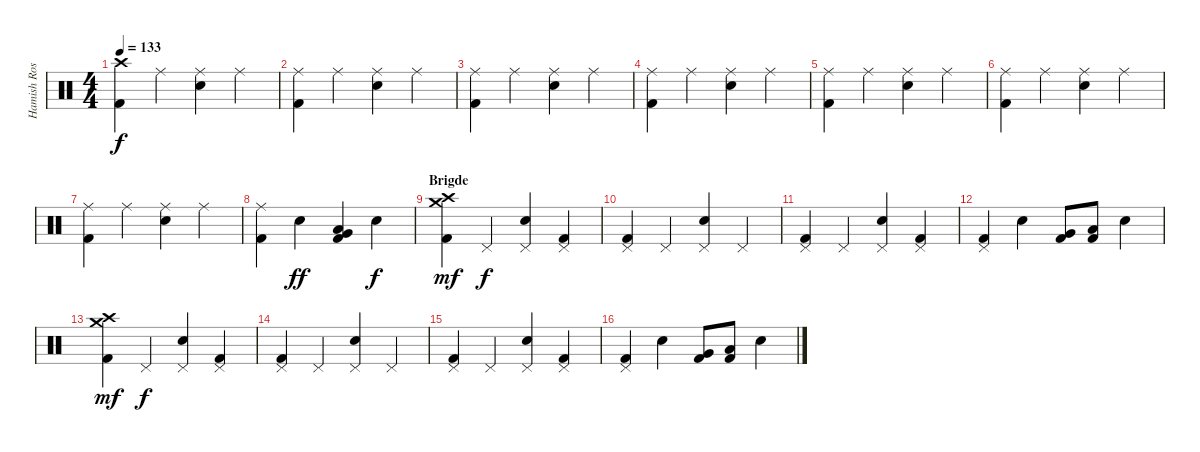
\track ("Hamish Rosser" "Hamish Ros") {instrument percussion}
\staff {score}
\articulation defaults
\ts (4 4)
\tempo 133
\clef neutral
\ks c
("Crash high (hit)" "Kick (hit) 2").4{dy f} "Ride (middle)".4 ("Ride (middle)" "Electric Snare (hit)").4 "Ride (middle)".4 |
("Ride (middle)" "Kick (hit) 2").4 "Ride (middle)".4 ("Ride (middle)" "Electric Snare (hit)").4 "Ride (middle)".4 |
("Ride (middle)" "Kick (hit) 2").4 "Ride (middle)".4 ("Ride (middle)" "Electric Snare (hit)").4 "Ride (middle)".4 |
("Ride (middle)" "Kick (hit) 2").4 "Ride (middle)".4 ("Ride (middle)" "Electric Snare (hit)").4 "Ride (middle)".4 |
("Ride (middle)" "Kick (hit) 2").4 "Ride (middle)".4 ("Ride (middle)" "Electric Snare (hit)").4 "Ride (middle)".4 |
("Ride (middle)" "Kick (hit) 2").4 "Ride (middle)".4 ("Ride (middle)" "Electric Snare (hit)").4 "Ride (middle)".4 |
("Ride (middle)" "Kick (hit) 2").4 "Ride (middle)".4 ("Ride (middle)" "Electric Snare (hit)").4 "Ride (middle)".4 |
("Ride (middle)" "Kick (hit) 2").4 "Electric Snare (hit)".4{dy ff} ("Low Tom (hit)" "Very Low Tom (hit)" "Kick (hit) 2").4 "Electric Snare (hit)".4{dy f} |
\section ("" "Brigde")
("Crash medium (hit)" "Crash high (hit)" "Kick (hit) 2").4{dy mf} "Pedal Hi-Hat (hit)".4{dy f} ("Pedal Hi-Hat (hit)" "Electric Snare (hit)").4 ("Pedal Hi-Hat (hit)" "Kick (hit) 2").4 |
("Pedal Hi-Hat (hit)" "Kick (hit) 2").4 "Pedal Hi-Hat (hit)".4 ("Pedal Hi-Hat (hit)" "Electric Snare (hit)").4 "Pedal Hi-Hat (hit)".4 |
("Pedal Hi-Hat (hit)" "Kick (hit) 2").4 "Pedal Hi-Hat (hit)".4 ("Pedal Hi-Hat (hit)" "Electric Snare (hit)").4 ("Pedal Hi-Hat (hit)" "Kick (hit) 2").4 |
("Pedal Hi-Hat (hit)" "Kick (hit) 2").4 "Electric Snare (hit)".4 ("Very Low Tom (hit)" "Kick (hit) 2").8 ("Low Tom (hit)" "Kick (hit) 2").8 "Electric Snare (hit)".4 |
("Crash medium (hit)" "Crash high (hit)" "Kick (hit) 2").4{dy mf} "Pedal Hi-Hat (hit)".4{dy f} ("Pedal Hi-Hat (hit)" "Electric Snare (hit)").4 ("Pedal Hi-Hat (hit)" "Kick (hit) 2").4 |
("Pedal Hi-Hat (hit)" "Kick (hit) 2").4 "Pedal Hi-Hat (hit)".4 ("Pedal Hi-Hat (hit)" "Electric Snare (hit)").4 "Pedal Hi-Hat (hit)".4 |
("Pedal Hi-Hat (hit)" "Kick (hit) 2").4 "Pedal Hi-Hat (hit)".4 ("Pedal Hi-Hat (hit)" "Electric Snare (hit)").4 ("Pedal Hi-Hat (hit)" "Kick (hit) 2").4 |
("Pedal Hi-Hat (hit)" "Kick (hit) 2").4 "Electric Snare (hit)".4 ("Very Low Tom (hit)" "Kick (hit) 2").8 ("Low Tom (hit)" "Kick (hit) 2").8 "Electric Snare (hit)".4
